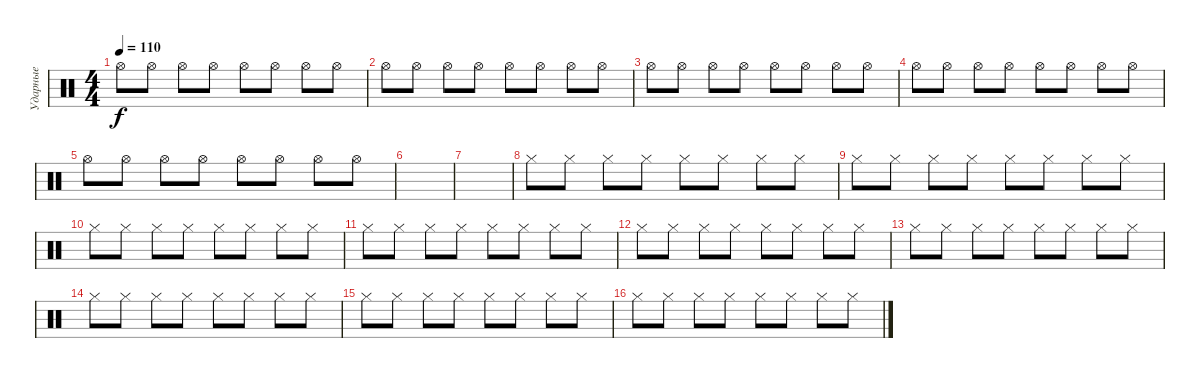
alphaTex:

\track ("Ударные" "Ударные") {instrument percussion}
\staff {score}
\articulation defaults
\ts (4 4)
\tempo 110
\clef neutral
\ks c "Hi-Hat (open)".8{dy f} "Hi-Hat (open)".8 "Hi-Hat (open)".8 "Hi-Hat (open)".8 "Hi-Hat (open)".8 "Hi-Hat (open)".8 "Hi-Hat (open)".8 "Hi-Hat (open)".8
|
"Hi-Hat (open)".8 "Hi-Hat (open)".8 "Hi-Hat (open)".8 "Hi-Hat (open)".8 "Hi-Hat (open)".8 "Hi-Hat (open)".8 "Hi-Hat (open)".8 "Hi-Hat (open)".8 |
"Hi-Hat (open)".8 "Hi-Hat (open)".8 "Hi-Hat (open)".8 "Hi-Hat (open)".8 "Hi-Hat (open)".8 "Hi-Hat (open)".8 "Hi-Hat (open)".8 "Hi-Hat (open)".8 |
"Hi-Hat (open)".8 "Hi-Hat (open)".8 "Hi-Hat (open)".8 "Hi-Hat (open)".8 "Hi-Hat (open)".8 "Hi-Hat (open)".8 "Hi-Hat (open)".8 "Hi-Hat (open)".8 |
"Hi-Hat (open)".8 "Hi-Hat (open)".8 "Hi-Hat (open)".8 "Hi-Hat (open)".8 "Hi-Hat (open)".8 "Hi-Hat (open)".8 "Hi-Hat (open)".8 "Hi-Hat (open)".8 |
|
|
"Hi-Hat (closed)".8 "Hi-Hat (closed)".8 "Hi-Hat (closed)".8 "Hi-Hat (closed)".8 "Hi-Hat (closed)".8 "Hi-Hat (closed)".8 "Hi-Hat (closed)".8 "Hi-Hat (closed)".8 |
"Hi-Hat (closed)".8 "Hi-Hat (closed)".8 "Hi-Hat (closed)".8 "Hi-Hat (closed)".8 "Hi-Hat (closed)".8 "Hi-Hat (closed)".8 "Hi-Hat (closed)".8 "Hi-Hat (closed)".8 |
"Hi-Hat (closed)".8 "Hi-Hat (closed)".8 "Hi-Hat (closed)".8 "Hi-Hat (closed)".8 "Hi-Hat (closed)".8 "Hi-Hat (closed)".8 "Hi-Hat (closed)".8 "Hi-Hat (closed)".8 |
"Hi-Hat (closed)".8 "Hi-Hat (closed)".8 "Hi-Hat (closed)".8 "Hi-Hat (closed)".8 "Hi-Hat (closed)".8 "Hi-Hat (closed)".8 "Hi-Hat (closed)".8 "Hi-Hat (closed)".8 |
"Hi-Hat (closed)".8 "Hi-Hat (closed)".8 "Hi-Hat (closed)".8 "Hi-Hat (closed)".8 "Hi-Hat (closed)".8 "Hi-Hat (closed)".8 "Hi-Hat (closed)".8 "Hi-Hat (closed)".8 |
"Hi-Hat (closed)".8 "Hi-Hat (closed)".8 "Hi-Hat (closed)".8 "Hi-Hat (closed)".8 "Hi-Hat (closed)".8 "Hi-Hat (closed)".8 "Hi-Hat (closed)".8 "Hi-Hat (closed)".8 |
"Hi-Hat (closed)".8 "Hi-Hat (closed)".8 "Hi-Hat (closed)".8 "Hi-Hat (closed)".8 "Hi-Hat (closed)".8 "Hi-Hat (closed)".8 "Hi-Hat (closed)".8 "Hi-Hat (closed)".8 |
"Hi-Hat (closed)".8 "Hi-Hat (closed)".8 "Hi-Hat (closed)".8 "Hi-Hat (closed)".8 "Hi-Hat (closed)".8 "Hi-Hat (closed)".8 "Hi-Hat (closed)".8 "Hi-Hat (closed)".8 |
"Hi-Hat (closed)".8 "Hi-Hat (closed)".8 "Hi-Hat (closed)".8 "Hi-Hat (closed)".8 "Hi-Hat (closed)".8 "Hi-Hat (closed)".8 "Hi-Hat (closed)".8 "Hi-Hat (closed)".8
